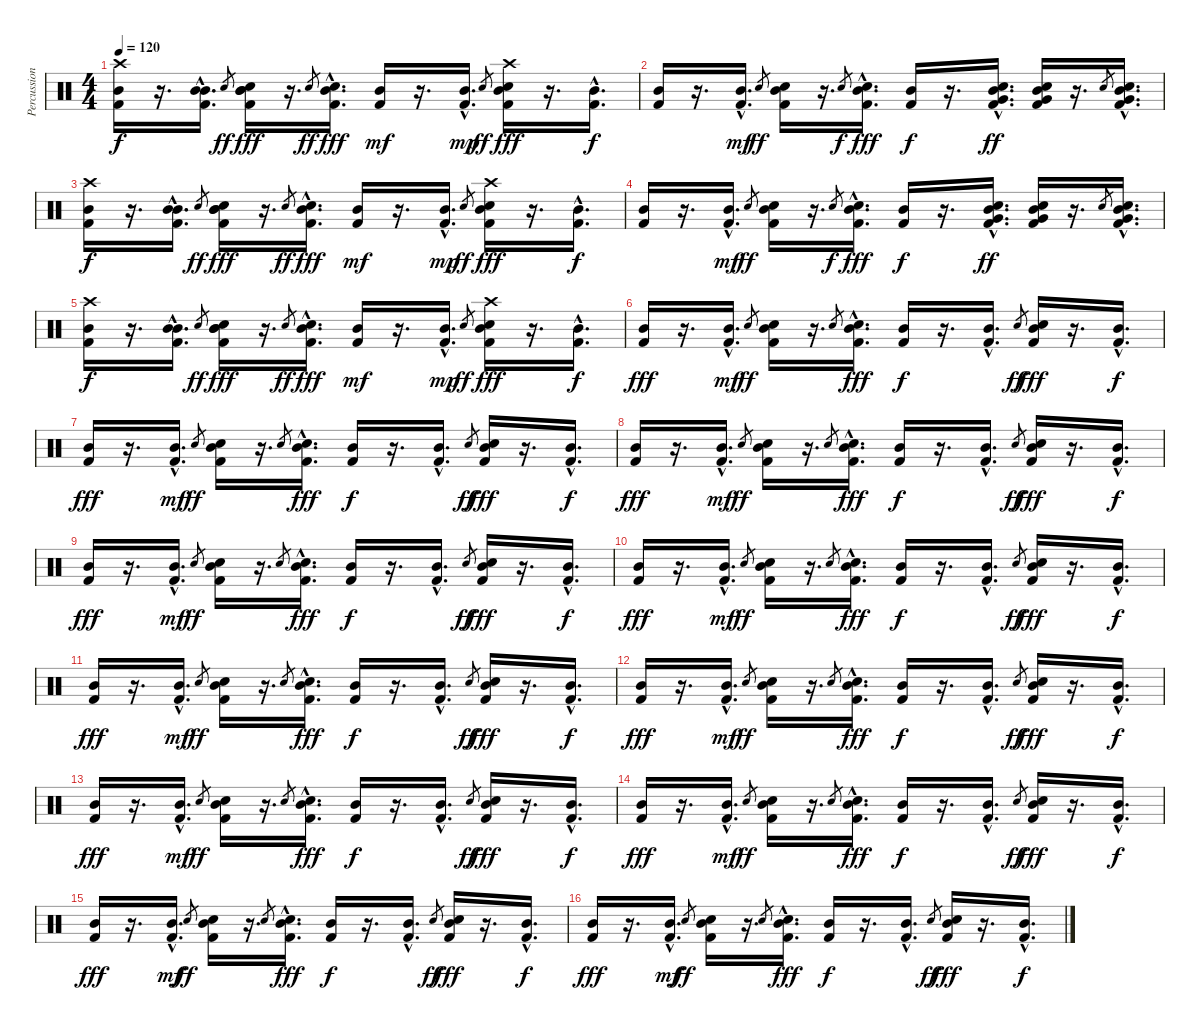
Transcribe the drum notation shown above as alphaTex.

\track ("Percussion" "Percussion") {instrument percussion}
\staff {score}
\articulation defaults
\ts (4 4)
\tempo 120
\clef neutral
\ks c
("Crash high (hit)" "Mid Tom (hit)" "Kick (hit) 2").16{dy f} r.16{d} ("Mid Tom (hit)"{hac} "Mid Tom (hit)"{hac} "Kick (hit) 2"{hac}).16{d} "Hand Clap (hit)".8{gr dy ff} ("Mid Tom (hit)" "Snare (hit) 2" "Mid Tom (hit)" "Kick (hit) 2").16{dy fff} r.16{d} "Hand Clap (hit)".8{gr dy ff} ("Mid Tom (hit)"{hac} "Snare (hit) 2" "Kick (hit) 2"{hac}).16{d dy fff} ("Mid Tom (hit)" "Kick (hit) 2").16{dy mf} r.16{d} ("Mid Tom (hit)"{hac} "Kick (hit) 2"{hac}).16{d dy mp} "Hand Clap (hit)".8{gr dy ff} ("Crash high (hit)" "Mid Tom (hit)" "Snare (hit) 2" "Kick (hit) 2").16{dy fff} r.16{d} ("Mid Tom (hit)" "Kick (hit) 2"{hac}).16{d dy f} |
("Mid Tom (hit)" "Kick (hit) 2").16 r.16{d} ("Mid Tom (hit)"{hac} "Kick (hit) 2"{hac}).16{d dy mf} "Hand Clap (hit)".8{gr dy ff} ("Mid Tom (hit)" "Snare (hit) 2" "Kick (hit) 2").16 r.16{d} "Hand Clap (hit)".8{gr dy f} ("Mid Tom (hit)"{hac} "Snare (hit) 2"{hac} "Kick (hit) 2"{hac}).16{d dy fff} ("Mid Tom (hit)" "Kick (hit) 2").16{dy f} r.16{d} ("Mid Tom (hit)"{hac} "Snare (hit) 2"{hac} "Very Low Tom (hit)"{hac} "Kick (hit) 2"{hac}).16{d dy ff} ("Mid Tom (hit)" "Snare (hit) 2" "Very Low Tom (hit)" "Kick (hit) 2").16 r.16{d} "Hand Clap (hit)".8{gr} ("Mid Tom (hit)" "Snare (hit) 2"{hac} "Very Low Tom (hit)"{hac} "Kick (hit) 2"{hac}).16{d} |
("Crash high (hit)" "Mid Tom (hit)" "Kick (hit) 2").16{dy f} r.16{d} ("Mid Tom (hit)"{hac} "Mid Tom (hit)"{hac} "Kick (hit) 2"{hac}).16{d} "Hand Clap (hit)".8{gr dy ff} ("Mid Tom (hit)" "Snare (hit) 2" "Mid Tom (hit)" "Kick (hit) 2").16{dy fff} r.16{d} "Hand Clap (hit)".8{gr dy ff} ("Mid Tom (hit)"{hac} "Snare (hit) 2" "Kick (hit) 2"{hac}).16{d dy fff} ("Mid Tom (hit)" "Kick (hit) 2").16{dy mf} r.16{d} ("Mid Tom (hit)"{hac} "Kick (hit) 2"{hac}).16{d dy mp} "Hand Clap (hit)".8{gr dy ff} ("Crash high (hit)" "Mid Tom (hit)" "Snare (hit) 2" "Kick (hit) 2").16{dy fff} r.16{d} ("Mid Tom (hit)" "Kick (hit) 2"{hac}).16{d dy f} |
("Mid Tom (hit)" "Kick (hit) 2").16 r.16{d} ("Mid Tom (hit)"{hac} "Kick (hit) 2"{hac}).16{d dy mf} "Hand Clap (hit)".8{gr dy ff} ("Mid Tom (hit)" "Snare (hit) 2" "Kick (hit) 2").16 r.16{d} "Hand Clap (hit)".8{gr dy f} ("Mid Tom (hit)"{hac} "Snare (hit) 2"{hac} "Kick (hit) 2"{hac}).16{d dy fff} ("Mid Tom (hit)" "Kick (hit) 2").16{dy f} r.16{d} ("Mid Tom (hit)"{hac} "Snare (hit) 2"{hac} "Very Low Tom (hit)"{hac} "Kick (hit) 2"{hac}).16{d dy ff} ("Mid Tom (hit)" "Snare (hit) 2" "Very Low Tom (hit)" "Kick (hit) 2").16 r.16{d} "Hand Clap (hit)".8{gr} ("Mid Tom (hit)" "Snare (hit) 2"{hac} "Very Low Tom (hit)"{hac} "Kick (hit) 2"{hac}).16{d} |
("Crash high (hit)" "Mid Tom (hit)" "Kick (hit) 2").16{dy f} r.16{d} ("Mid Tom (hit)"{hac} "Mid Tom (hit)"{hac} "Kick (hit) 2"{hac}).16{d} "Hand Clap (hit)".8{gr dy ff} ("Mid Tom (hit)" "Snare (hit) 2" "Mid Tom (hit)" "Kick (hit) 2").16{dy fff} r.16{d} "Hand Clap (hit)".8{gr dy ff} ("Mid Tom (hit)"{hac} "Snare (hit) 2" "Kick (hit) 2"{hac}).16{d dy fff} ("Mid Tom (hit)" "Kick (hit) 2").16{dy mf} r.16{d} ("Mid Tom (hit)"{hac} "Kick (hit) 2"{hac}).16{d dy mp} "Hand Clap (hit)".8{gr dy ff} ("Crash high (hit)" "Mid Tom (hit)" "Snare (hit) 2" "Kick (hit) 2").16{dy fff} r.16{d} ("Mid Tom (hit)" "Kick (hit) 2"{hac}).16{d dy f} |
("Mid Tom (hit)" "Kick (hit) 2").16{dy fff} r.16{d} ("Mid Tom (hit)"{hac} "Kick (hit) 2"{hac}).16{d dy mf} "Hand Clap (hit)".8{gr dy ff} ("Mid Tom (hit)" "Snare (hit) 2" "Kick (hit) 2").16 r.16{d} "Hand Clap (hit)".8{gr} ("Mid Tom (hit)"{hac} "Snare (hit) 2"{hac} "Kick (hit) 2"{hac}).16{d dy fff} ("Mid Tom (hit)" "Kick (hit) 2").16{dy f} r.16{d} ("Mid Tom (hit)"{hac} "Kick (hit) 2"{hac}).16{d} "Hand Clap (hit)".8{gr dy ff} ("Mid Tom (hit)" "Snare (hit) 2" "Kick (hit) 2").16{dy fff} r.16{d} ("Mid Tom (hit)" "Kick (hit) 2"{hac}).16{d dy f} |
("Mid Tom (hit)" "Kick (hit) 2").16{dy fff} r.16{d} ("Mid Tom (hit)"{hac} "Kick (hit) 2"{hac}).16{d dy mf} "Hand Clap (hit)".8{gr dy ff} ("Mid Tom (hit)" "Snare (hit) 2" "Kick (hit) 2").16 r.16{d} "Hand Clap (hit)".8{gr} ("Mid Tom (hit)"{hac} "Snare (hit) 2"{hac} "Kick (hit) 2"{hac}).16{d dy fff} ("Mid Tom (hit)" "Kick (hit) 2").16{dy f} r.16{d} ("Mid Tom (hit)"{hac} "Kick (hit) 2"{hac}).16{d} "Hand Clap (hit)".8{gr dy ff} ("Mid Tom (hit)" "Snare (hit) 2" "Kick (hit) 2").16{dy fff} r.16{d} ("Mid Tom (hit)" "Kick (hit) 2"{hac}).16{d dy f} |
("Mid Tom (hit)" "Kick (hit) 2").16{dy fff} r.16{d} ("Mid Tom (hit)"{hac} "Kick (hit) 2"{hac}).16{d dy mf} "Hand Clap (hit)".8{gr dy ff} ("Mid Tom (hit)" "Snare (hit) 2" "Kick (hit) 2").16 r.16{d} "Hand Clap (hit)".8{gr} ("Mid Tom (hit)"{hac} "Snare (hit) 2"{hac} "Kick (hit) 2"{hac}).16{d dy fff} ("Mid Tom (hit)" "Kick (hit) 2").16{dy f} r.16{d} ("Mid Tom (hit)"{hac} "Kick (hit) 2"{hac}).16{d} "Hand Clap (hit)".8{gr dy ff} ("Mid Tom (hit)" "Snare (hit) 2" "Kick (hit) 2").16{dy fff} r.16{d} ("Mid Tom (hit)" "Kick (hit) 2"{hac}).16{d dy f} |
("Mid Tom (hit)" "Kick (hit) 2").16{dy fff} r.16{d} ("Mid Tom (hit)"{hac} "Kick (hit) 2"{hac}).16{d dy mf} "Hand Clap (hit)".8{gr dy ff} ("Mid Tom (hit)" "Snare (hit) 2" "Kick (hit) 2").16 r.16{d} "Hand Clap (hit)".8{gr} ("Mid Tom (hit)"{hac} "Snare (hit) 2"{hac} "Kick (hit) 2"{hac}).16{d dy fff} ("Mid Tom (hit)" "Kick (hit) 2").16{dy f} r.16{d} ("Mid Tom (hit)"{hac} "Kick (hit) 2"{hac}).16{d} "Hand Clap (hit)".8{gr dy ff} ("Mid Tom (hit)" "Snare (hit) 2" "Kick (hit) 2").16{dy fff} r.16{d} ("Mid Tom (hit)" "Kick (hit) 2"{hac}).16{d dy f} |
("Mid Tom (hit)" "Kick (hit) 2").16{dy fff} r.16{d} ("Mid Tom (hit)"{hac} "Kick (hit) 2"{hac}).16{d dy mf} "Hand Clap (hit)".8{gr dy ff} ("Mid Tom (hit)" "Snare (hit) 2" "Kick (hit) 2").16 r.16{d} "Hand Clap (hit)".8{gr} ("Mid Tom (hit)"{hac} "Snare (hit) 2"{hac} "Kick (hit) 2"{hac}).16{d dy fff} ("Mid Tom (hit)" "Kick (hit) 2").16{dy f} r.16{d} ("Mid Tom (hit)"{hac} "Kick (hit) 2"{hac}).16{d} "Hand Clap (hit)".8{gr dy ff} ("Mid Tom (hit)" "Snare (hit) 2" "Kick (hit) 2").16{dy fff} r.16{d} ("Mid Tom (hit)" "Kick (hit) 2"{hac}).16{d dy f} |
("Mid Tom (hit)" "Kick (hit) 2").16{dy fff} r.16{d} ("Mid Tom (hit)"{hac} "Kick (hit) 2"{hac}).16{d dy mf} "Hand Clap (hit)".8{gr dy ff} ("Mid Tom (hit)" "Snare (hit) 2" "Kick (hit) 2").16 r.16{d} "Hand Clap (hit)".8{gr} ("Mid Tom (hit)"{hac} "Snare (hit) 2"{hac} "Kick (hit) 2"{hac}).16{d dy fff} ("Mid Tom (hit)" "Kick (hit) 2").16{dy f} r.16{d} ("Mid Tom (hit)"{hac} "Kick (hit) 2"{hac}).16{d} "Hand Clap (hit)".8{gr dy ff} ("Mid Tom (hit)" "Snare (hit) 2" "Kick (hit) 2").16{dy fff} r.16{d} ("Mid Tom (hit)" "Kick (hit) 2"{hac}).16{d dy f} |
("Mid Tom (hit)" "Kick (hit) 2").16{dy fff} r.16{d} ("Mid Tom (hit)"{hac} "Kick (hit) 2"{hac}).16{d dy mf} "Hand Clap (hit)".8{gr dy ff} ("Mid Tom (hit)" "Snare (hit) 2" "Kick (hit) 2").16 r.16{d} "Hand Clap (hit)".8{gr} ("Mid Tom (hit)"{hac} "Snare (hit) 2"{hac} "Kick (hit) 2"{hac}).16{d dy fff} ("Mid Tom (hit)" "Kick (hit) 2").16{dy f} r.16{d} ("Mid Tom (hit)"{hac} "Kick (hit) 2"{hac}).16{d} "Hand Clap (hit)".8{gr dy ff} ("Mid Tom (hit)" "Snare (hit) 2" "Kick (hit) 2").16{dy fff} r.16{d} ("Mid Tom (hit)" "Kick (hit) 2"{hac}).16{d dy f} |
("Mid Tom (hit)" "Kick (hit) 2").16{dy fff volume 14} r.16{d} ("Mid Tom (hit)"{hac} "Kick (hit) 2"{hac}).16{d dy mf} "Hand Clap (hit)".8{gr dy ff} ("Mid Tom (hit)" "Snare (hit) 2" "Kick (hit) 2").16 r.16{d} "Hand Clap (hit)".8{gr} ("Mid Tom (hit)"{hac} "Snare (hit) 2"{hac} "Kick (hit) 2"{hac}).16{d dy fff} ("Mid Tom (hit)" "Kick (hit) 2").16{dy f} r.16{d} ("Mid Tom (hit)"{hac} "Kick (hit) 2"{hac}).16{d} "Hand Clap (hit)".8{gr dy ff} ("Mid Tom (hit)" "Snare (hit) 2" "Kick (hit) 2").16{dy fff} r.16{d} ("Mid Tom (hit)" "Kick (hit) 2"{hac}).16{d dy f} |
("Mid Tom (hit)" "Kick (hit) 2").16{dy fff volume 13} r.16{d} ("Mid Tom (hit)"{hac} "Kick (hit) 2"{hac}).16{d dy mf} "Hand Clap (hit)".8{gr dy ff} ("Mid Tom (hit)" "Snare (hit) 2" "Kick (hit) 2").16 r.16{d} "Hand Clap (hit)".8{gr} ("Mid Tom (hit)"{hac} "Snare (hit) 2"{hac} "Kick (hit) 2"{hac}).16{d dy fff} ("Mid Tom (hit)" "Kick (hit) 2").16{dy f} r.16{d} ("Mid Tom (hit)"{hac} "Kick (hit) 2"{hac}).16{d} "Hand Clap (hit)".8{gr dy ff} ("Mid Tom (hit)" "Snare (hit) 2" "Kick (hit) 2").16{dy fff} r.16{d} ("Mid Tom (hit)" "Kick (hit) 2"{hac}).16{d dy f} |
("Mid Tom (hit)" "Kick (hit) 2").16{dy fff volume 12} r.16{d} ("Mid Tom (hit)"{hac} "Kick (hit) 2"{hac}).16{d dy mf} "Hand Clap (hit)".8{gr dy ff} ("Mid Tom (hit)" "Snare (hit) 2" "Kick (hit) 2").16 r.16{d} "Hand Clap (hit)".8{gr} ("Mid Tom (hit)"{hac} "Snare (hit) 2"{hac} "Kick (hit) 2"{hac}).16{d dy fff} ("Mid Tom (hit)" "Kick (hit) 2").16{dy f} r.16{d} ("Mid Tom (hit)"{hac} "Kick (hit) 2"{hac}).16{d} "Hand Clap (hit)".8{gr dy ff} ("Mid Tom (hit)" "Snare (hit) 2" "Kick (hit) 2").16{dy fff} r.16{d} ("Mid Tom (hit)" "Kick (hit) 2"{hac}).16{d dy f} |
("Mid Tom (hit)" "Kick (hit) 2").16{dy fff volume 10} r.16{d} ("Mid Tom (hit)"{hac} "Kick (hit) 2"{hac}).16{d dy mf} "Hand Clap (hit)".8{gr dy ff} ("Mid Tom (hit)" "Snare (hit) 2" "Kick (hit) 2").16 r.16{d} "Hand Clap (hit)".8{gr} ("Mid Tom (hit)"{hac} "Snare (hit) 2"{hac} "Kick (hit) 2"{hac}).16{d dy fff} ("Mid Tom (hit)" "Kick (hit) 2").16{dy f} r.16{d} ("Mid Tom (hit)"{hac} "Kick (hit) 2"{hac}).16{d} "Hand Clap (hit)".8{gr dy ff} ("Mid Tom (hit)" "Snare (hit) 2" "Kick (hit) 2").16{dy fff} r.16{d} ("Mid Tom (hit)" "Kick (hit) 2"{hac}).16{d dy f}
